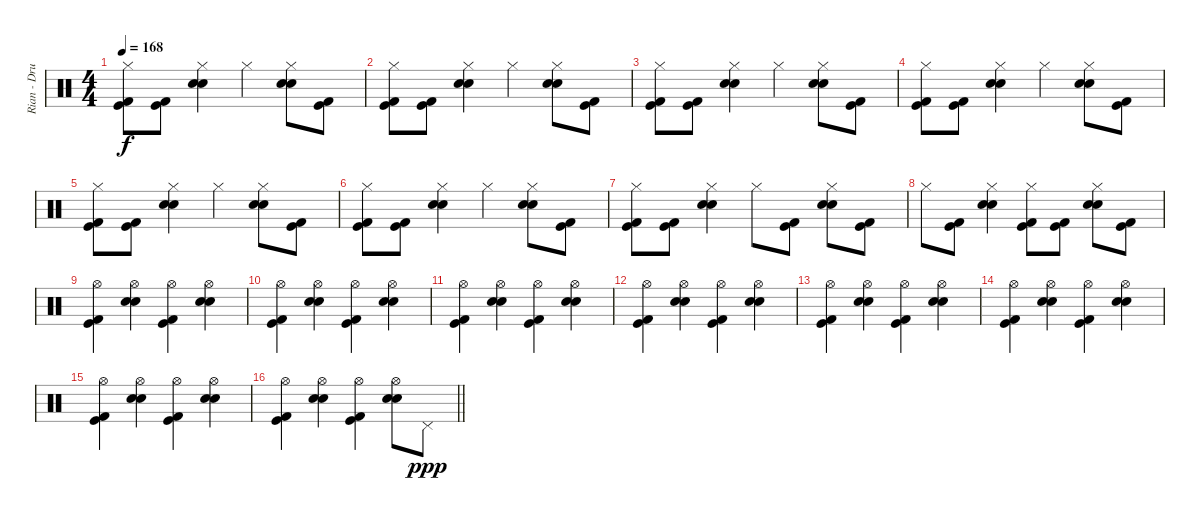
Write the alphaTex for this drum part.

\track ("Rian - Drums" "Rian - Dru") {instrument percussion}
\staff {score}
\articulation defaults
\ts (4 4)
\tempo 168
\clef neutral
\ks c
("Kick (hit) 2" "Kick (hit)" "Hi-Hat (closed)").8{dy f} ("Kick (hit) 2" "Kick (hit)").8 ("Electric Snare (hit)" "Electric Snare (hit)" "Hi-Hat (closed)").4 "Hi-Hat (closed)".4 ("Electric Snare (hit)" "Electric Snare (hit)" "Hi-Hat (closed)").8 ("Kick (hit) 2" "Kick (hit)").8 |
("Kick (hit) 2" "Kick (hit)" "Hi-Hat (closed)").8 ("Kick (hit) 2" "Kick (hit)").8 ("Electric Snare (hit)" "Electric Snare (hit)" "Hi-Hat (closed)").4 "Hi-Hat (closed)".4 ("Electric Snare (hit)" "Electric Snare (hit)" "Hi-Hat (closed)").8 ("Kick (hit) 2" "Kick (hit)").8 |
("Kick (hit) 2" "Kick (hit)" "Hi-Hat (closed)").8 ("Kick (hit) 2" "Kick (hit)").8 ("Electric Snare (hit)" "Electric Snare (hit)" "Hi-Hat (closed)").4 "Hi-Hat (closed)".4 ("Electric Snare (hit)" "Electric Snare (hit)" "Hi-Hat (closed)").8 ("Kick (hit) 2" "Kick (hit)").8 |
("Kick (hit) 2" "Kick (hit)" "Hi-Hat (closed)").8 ("Kick (hit) 2" "Kick (hit)").8 ("Electric Snare (hit)" "Electric Snare (hit)" "Hi-Hat (closed)").4 "Hi-Hat (closed)".4 ("Electric Snare (hit)" "Electric Snare (hit)" "Hi-Hat (closed)").8 ("Kick (hit) 2" "Kick (hit)").8 |
("Kick (hit) 2" "Kick (hit)" "Hi-Hat (closed)").8 ("Kick (hit) 2" "Kick (hit)").8 ("Electric Snare (hit)" "Electric Snare (hit)" "Hi-Hat (closed)").4 "Hi-Hat (closed)".4 ("Electric Snare (hit)" "Electric Snare (hit)" "Hi-Hat (closed)").8 ("Kick (hit) 2" "Kick (hit)").8 |
("Kick (hit) 2" "Kick (hit)" "Hi-Hat (closed)").8 ("Kick (hit) 2" "Kick (hit)").8 ("Electric Snare (hit)" "Electric Snare (hit)" "Hi-Hat (closed)").4 "Hi-Hat (closed)".4 ("Electric Snare (hit)" "Electric Snare (hit)" "Hi-Hat (closed)").8 ("Kick (hit) 2" "Kick (hit)").8 |
("Kick (hit) 2" "Kick (hit)" "Hi-Hat (closed)").8 ("Kick (hit) 2" "Kick (hit)").8 ("Electric Snare (hit)" "Electric Snare (hit)" "Hi-Hat (closed)").4 "Hi-Hat (closed)".8 ("Kick (hit) 2" "Kick (hit)").8 ("Electric Snare (hit)" "Electric Snare (hit)" "Hi-Hat (closed)").8 ("Kick (hit) 2" "Kick (hit)").8 |
"Hi-Hat (closed)".8 ("Kick (hit) 2" "Kick (hit)").8 ("Electric Snare (hit)" "Electric Snare (hit)" "Hi-Hat (closed)").4 ("Kick (hit) 2" "Kick (hit)" "Hi-Hat (closed)").8 ("Kick (hit) 2" "Kick (hit)").8 ("Electric Snare (hit)" "Electric Snare (hit)" "Hi-Hat (closed)").8 ("Kick (hit) 2" "Kick (hit)").8 |
("Kick (hit) 2" "Kick (hit)" "Hi-Hat (open)").4 ("Electric Snare (hit)" "Electric Snare (hit)" "Hi-Hat (open)").4 ("Kick (hit) 2" "Kick (hit)" "Hi-Hat (open)").4 ("Electric Snare (hit)" "Electric Snare (hit)" "Hi-Hat (open)").4 |
("Kick (hit) 2" "Kick (hit)" "Hi-Hat (open)").4 ("Electric Snare (hit)" "Electric Snare (hit)" "Hi-Hat (open)").4 ("Kick (hit) 2" "Kick (hit)" "Hi-Hat (open)").4 ("Electric Snare (hit)" "Electric Snare (hit)" "Hi-Hat (open)").4 |
("Kick (hit) 2" "Kick (hit)" "Hi-Hat (open)").4 ("Electric Snare (hit)" "Electric Snare (hit)" "Hi-Hat (open)").4 ("Kick (hit) 2" "Kick (hit)" "Hi-Hat (open)").4 ("Electric Snare (hit)" "Electric Snare (hit)" "Hi-Hat (open)").4 |
("Kick (hit) 2" "Kick (hit)" "Hi-Hat (open)").4 ("Electric Snare (hit)" "Electric Snare (hit)" "Hi-Hat (open)").4 ("Kick (hit) 2" "Kick (hit)" "Hi-Hat (open)").4 ("Electric Snare (hit)" "Electric Snare (hit)" "Hi-Hat (open)").4 |
("Kick (hit) 2" "Kick (hit)" "Hi-Hat (open)").4 ("Electric Snare (hit)" "Electric Snare (hit)" "Hi-Hat (open)").4 ("Kick (hit) 2" "Kick (hit)" "Hi-Hat (open)").4 ("Electric Snare (hit)" "Electric Snare (hit)" "Hi-Hat (open)").4 |
("Kick (hit) 2" "Kick (hit)" "Hi-Hat (open)").4 ("Electric Snare (hit)" "Electric Snare (hit)" "Hi-Hat (open)").4 ("Kick (hit) 2" "Kick (hit)" "Hi-Hat (open)").4 ("Electric Snare (hit)" "Electric Snare (hit)" "Hi-Hat (open)").4 |
("Kick (hit) 2" "Kick (hit)" "Hi-Hat (open)").4 ("Electric Snare (hit)" "Electric Snare (hit)" "Hi-Hat (open)").4 ("Kick (hit) 2" "Kick (hit)" "Hi-Hat (open)").4 ("Electric Snare (hit)" "Electric Snare (hit)" "Hi-Hat (open)").4 |
\barLineRight lightlight
("Kick (hit) 2" "Kick (hit)" "Hi-Hat (open)").4 ("Electric Snare (hit)" "Electric Snare (hit)" "Hi-Hat (open)").4 ("Kick (hit) 2" "Kick (hit)" "Hi-Hat (open)").4 ("Electric Snare (hit)" "Electric Snare (hit)" "Hi-Hat (open)").8 "Pedal Hi-Hat (hit)".8{dy ppp}
